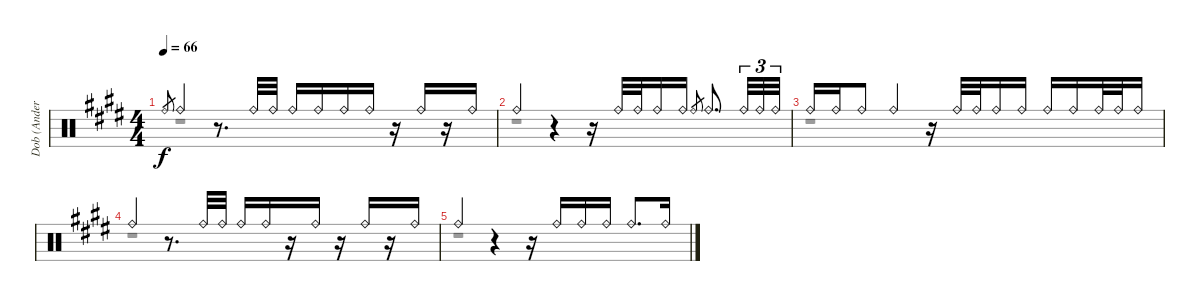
\track ("Dob (Anders Johansson)" "Dob (Ander") {instrument percussion}
\staff {score}
\articulation defaults
\voice
\ts (4 4)
\tempo 66
\clef neutral
\ks e "Ride (bell)".8{gr dy f} "Ride (bell)".4
r.8{d} "Ride (bell)".32 "Ride (bell)".32 "Ride (bell)".16 "Ride (bell)".16 "Ride (bell)".16 "Ride (bell)".16 r.16 "Ride (bell)".16 r.16 "Ride (bell)".16 |
"Ride (bell)".4 r.4 r.16 "Ride (bell)".32 "Ride (bell)".32 "Ride (bell)".16 "Ride (bell)".16 "Ride (bell)".8{gr} "Ride (bell)".8{d} "Ride (bell)".32{tu (3 2)} "Ride (bell)".32{tu (3 2)} "Ride (bell)".32{tu (3 2)} |
"Ride (bell)".16 "Ride (bell)".16 "Ride (bell)".8 "Ride (bell)".4 r.16 "Ride (bell)".32 "Ride (bell)".32 "Ride (bell)".16 "Ride (bell)".16 "Ride (bell)".16 "Ride (bell)".16 "Ride (bell)".32 "Ride (bell)".32 "Ride (bell)".16 |
"Ride (bell)".4 r.8{d} "Ride (bell)".32 "Ride (bell)".32 "Ride (bell)".16 "Ride (bell)".16 r.16 "Ride (bell)".16 r.16 "Ride (bell)".16 r.16 "Ride (bell)".16 |
"Ride (bell)".4 r.4 r.16 "Ride (bell)".16 "Ride (bell)".16 "Ride (bell)".16 "Ride (bell)".8{d} "Ride (bell)".16 |
\voice
\clef neutral
\ottava regular
\simile none
\ks e
r.1{dy f} |
r.1 |
r.1 |
r.1 |
r.1 |
